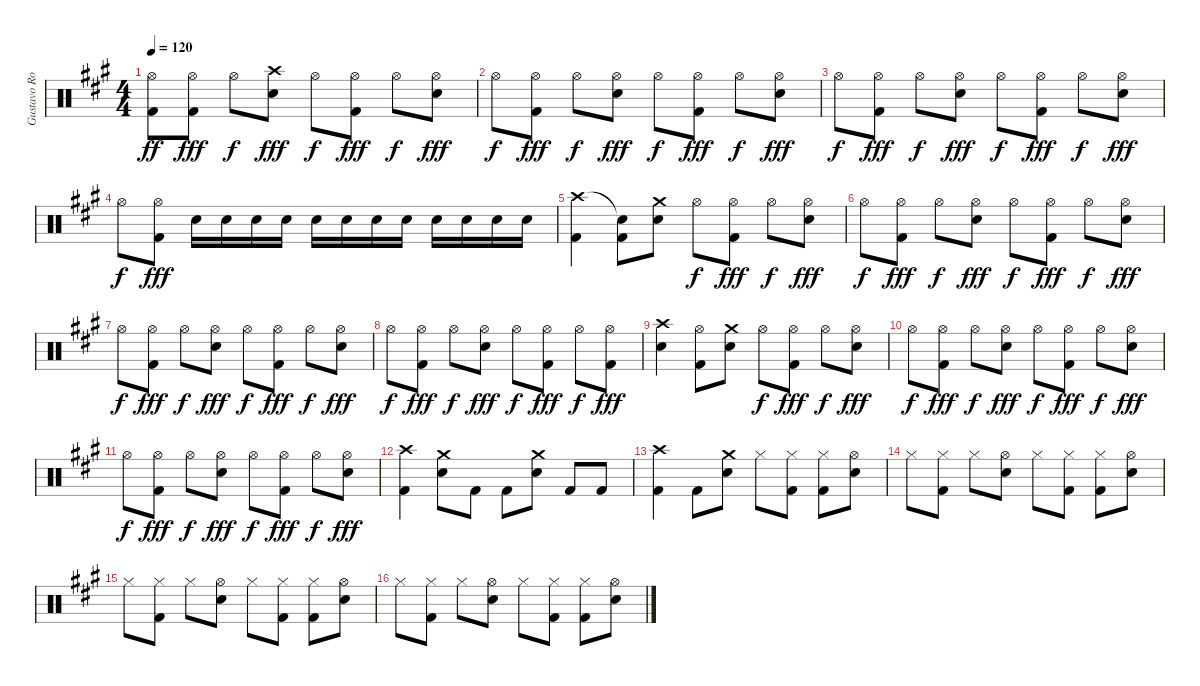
\track ("Gustavo Rowek" "Gustavo Ro") {instrument percussion}
\staff {score}
\articulation defaults
\ts (4 4)
\tempo 120
\clef neutral
\ks a
("Hi-Hat (open)" "Kick (hit) 2").8{dy ff} ("Hi-Hat (open)" "Kick (hit) 2").8{dy fff} "Hi-Hat (open)".8{dy f} ("Crash high (hit)" "Snare (hit) 2").8{dy fff} "Hi-Hat (open)".8{dy f} ("Hi-Hat (open)" "Kick (hit) 2").8{dy fff} "Hi-Hat (open)".8{dy f} ("Hi-Hat (open)" "Snare (hit) 2").8{dy fff} |
"Hi-Hat (open)".8{dy f} ("Hi-Hat (open)" "Kick (hit) 2").8{dy fff} "Hi-Hat (open)".8{dy f} ("Hi-Hat (open)" "Snare (hit) 2").8{dy fff} "Hi-Hat (open)".8{dy f} ("Hi-Hat (open)" "Kick (hit) 2").8{dy fff} "Hi-Hat (open)".8{dy f} ("Hi-Hat (open)" "Snare (hit) 2").8{dy fff} |
"Hi-Hat (open)".8{dy f} ("Hi-Hat (open)" "Kick (hit) 2").8{dy fff} "Hi-Hat (open)".8{dy f} ("Hi-Hat (open)" "Snare (hit) 2").8{dy fff} "Hi-Hat (open)".8{dy f} ("Hi-Hat (open)" "Kick (hit) 2").8{dy fff} "Hi-Hat (open)".8{dy f} ("Hi-Hat (open)" "Snare (hit) 2").8{dy fff} |
"Hi-Hat (open)".8{dy f} ("Hi-Hat (open)" "Kick (hit) 2").8{dy fff} "Snare (hit) 2".16 "Snare (hit) 2".16 "Snare (hit) 2".16 "Snare (hit) 2".16 "Snare (hit) 2".16 "Snare (hit) 2".16 "Snare (hit) 2".16 "Snare (hit) 2".16 "Snare (hit) 2".16 "Snare (hit) 2".16 "Snare (hit) 2".16 "Snare (hit) 2".16 |
("Crash high (hit)" "Kick (hit) 2").4 ("Snare (hit)"{t} "Kick (hit) 2").8 ("Crash medium (hit)" "Snare (hit) 2").8 "Hi-Hat (open)".8{dy f} ("Hi-Hat (open)" "Kick (hit) 2").8{dy fff} "Hi-Hat (open)".8{dy f} ("Hi-Hat (open)" "Snare (hit) 2").8{dy fff} |
"Hi-Hat (open)".8{dy f} ("Hi-Hat (open)" "Kick (hit) 2").8{dy fff} "Hi-Hat (open)".8{dy f} ("Hi-Hat (open)" "Snare (hit) 2").8{dy fff} "Hi-Hat (open)".8{dy f} ("Hi-Hat (open)" "Kick (hit) 2").8{dy fff} "Hi-Hat (open)".8{dy f} ("Hi-Hat (open)" "Snare (hit) 2").8{dy fff} |
"Hi-Hat (open)".8{dy f} ("Hi-Hat (open)" "Kick (hit) 2").8{dy fff} "Hi-Hat (open)".8{dy f} ("Hi-Hat (open)" "Snare (hit) 2").8{dy fff} "Hi-Hat (open)".8{dy f} ("Hi-Hat (open)" "Kick (hit) 2").8{dy fff} "Hi-Hat (open)".8{dy f} ("Hi-Hat (open)" "Snare (hit) 2").8{dy fff} |
"Hi-Hat (open)".8{dy f} ("Hi-Hat (open)" "Kick (hit) 2").8{dy fff} "Hi-Hat (open)".8{dy f} ("Hi-Hat (open)" "Snare (hit) 2").8{dy fff} "Hi-Hat (open)".8{dy f} ("Hi-Hat (open)" "Kick (hit) 2").8{dy fff} "Hi-Hat (open)".8{dy f} ("Hi-Hat (open)" "Kick (hit) 2").8{dy fff} |
("Crash high (hit)" "Snare (hit) 2").4 ("Hi-Hat (open)" "Kick (hit) 2").8 ("Crash medium (hit)" "Snare (hit) 2").8 "Hi-Hat (open)".8{dy f} ("Hi-Hat (open)" "Kick (hit) 2").8{dy fff} "Hi-Hat (open)".8{dy f} ("Hi-Hat (open)" "Snare (hit) 2").8{dy fff} |
"Hi-Hat (open)".8{dy f} ("Hi-Hat (open)" "Kick (hit) 2").8{dy fff} "Hi-Hat (open)".8{dy f} ("Hi-Hat (open)" "Snare (hit) 2").8{dy fff} "Hi-Hat (open)".8{dy f} ("Hi-Hat (open)" "Kick (hit) 2").8{dy fff} "Hi-Hat (open)".8{dy f} ("Hi-Hat (open)" "Snare (hit) 2").8{dy fff} |
"Hi-Hat (open)".8{dy f} ("Hi-Hat (open)" "Kick (hit) 2").8{dy fff} "Hi-Hat (open)".8{dy f} ("Hi-Hat (open)" "Snare (hit) 2").8{dy fff} "Hi-Hat (open)".8{dy f} ("Hi-Hat (open)" "Kick (hit) 2").8{dy fff} "Hi-Hat (open)".8{dy f} ("Hi-Hat (open)" "Snare (hit) 2").8{dy fff} |
("Crash high (hit)" "Kick (hit) 2").4 ("Crash medium (hit)" "Snare (hit) 2").8 "Kick (hit) 2".8 "Kick (hit) 2".8 ("Crash medium (hit)" "Snare (hit) 2").8 "Kick (hit) 2".8 "Kick (hit) 2".8 |
("Crash high (hit)" "Kick (hit) 2").4 "Kick (hit) 2".8 ("Crash medium (hit)" "Snare (hit) 2").8 "Hi-Hat (closed)".8 ("Hi-Hat (closed)" "Kick (hit) 2").8 ("Hi-Hat (closed)" "Kick (hit) 2").8 ("Hi-Hat (open)" "Snare (hit) 2").8 |
"Hi-Hat (closed)".8 ("Hi-Hat (closed)" "Kick (hit) 2").8 "Hi-Hat (closed)".8 ("Hi-Hat (open)" "Snare (hit) 2").8 "Hi-Hat (closed)".8 ("Hi-Hat (closed)" "Kick (hit) 2").8 ("Hi-Hat (closed)" "Kick (hit) 2").8 ("Hi-Hat (open)" "Snare (hit) 2").8 |
"Hi-Hat (closed)".8 ("Hi-Hat (closed)" "Kick (hit) 2").8 "Hi-Hat (closed)".8 ("Hi-Hat (open)" "Snare (hit) 2").8 "Hi-Hat (closed)".8 ("Hi-Hat (closed)" "Kick (hit) 2").8 ("Hi-Hat (closed)" "Kick (hit) 2").8 ("Hi-Hat (open)" "Snare (hit) 2").8 |
"Hi-Hat (closed)".8 ("Hi-Hat (closed)" "Kick (hit) 2").8 "Hi-Hat (closed)".8 ("Hi-Hat (open)" "Snare (hit) 2").8 "Hi-Hat (closed)".8 ("Hi-Hat (closed)" "Kick (hit) 2").8 ("Hi-Hat (closed)" "Kick (hit) 2").8 ("Hi-Hat (open)" "Snare (hit) 2").8
